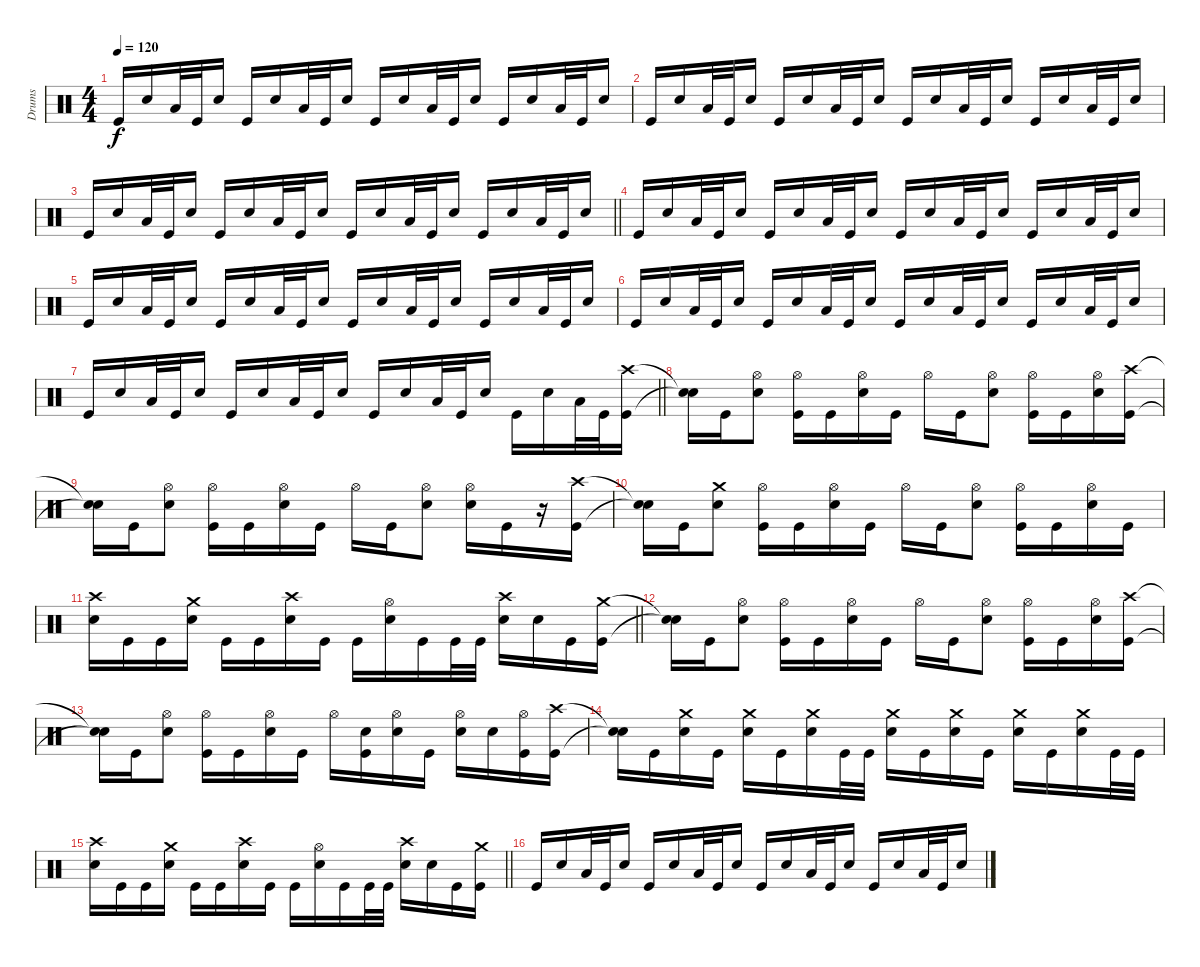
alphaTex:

\track ("Drums" "Drums") {instrument percussion}
\staff
\articulation defaults
\ts (4 4)
\tempo 120
\clef neutral
\ks c "Kick (hit)".16{dy f} "Electric Snare (hit)".16 "Low Floor Tom (hit)".32 "Kick (hit)".32 "Electric Snare (hit)".16 "Kick (hit)".16 "Electric Snare (hit)".16 "Low Floor Tom (hit)".32 "Kick (hit)".32 "Electric Snare (hit)".16 "Kick (hit)".16 "Electric Snare (hit)".16 "Low Floor Tom (hit)".32 "Kick (hit)".32 "Electric Snare (hit)".16 "Kick (hit)".16 "Electric Snare (hit)".16 "Low Floor Tom (hit)".32 "Kick (hit)".32 "Electric Snare (hit)".16
|
"Kick (hit)".16 "Electric Snare (hit)".16 "Low Floor Tom (hit)".32 "Kick (hit)".32 "Electric Snare (hit)".16 "Kick (hit)".16 "Electric Snare (hit)".16 "Low Floor Tom (hit)".32 "Kick (hit)".32 "Electric Snare (hit)".16 "Kick (hit)".16 "Electric Snare (hit)".16 "Low Floor Tom (hit)".32 "Kick (hit)".32 "Electric Snare (hit)".16 "Kick (hit)".16 "Electric Snare (hit)".16 "Low Floor Tom (hit)".32 "Kick (hit)".32 "Electric Snare (hit)".16 |
\barLineRight lightlight "Kick (hit)".16 "Electric Snare (hit)".16 "Low Floor Tom (hit)".32 "Kick (hit)".32 "Electric Snare (hit)".16 "Kick (hit)".16 "Electric Snare (hit)".16 "Low Floor Tom (hit)".32 "Kick (hit)".32 "Electric Snare (hit)".16 "Kick (hit)".16 "Electric Snare (hit)".16 "Low Floor Tom (hit)".32 "Kick (hit)".32 "Electric Snare (hit)".16 "Kick (hit)".16 "Electric Snare (hit)".16 "Low Floor Tom (hit)".32 "Kick (hit)".32 "Electric Snare (hit)".16
|
"Kick (hit)".16 "Electric Snare (hit)".16 "Low Floor Tom (hit)".32 "Kick (hit)".32 "Electric Snare (hit)".16 "Kick (hit)".16 "Electric Snare (hit)".16 "Low Floor Tom (hit)".32 "Kick (hit)".32 "Electric Snare (hit)".16 "Kick (hit)".16 "Electric Snare (hit)".16 "Low Floor Tom (hit)".32 "Kick (hit)".32 "Electric Snare (hit)".16 "Kick (hit)".16 "Electric Snare (hit)".16 "Low Floor Tom (hit)".32 "Kick (hit)".32 "Electric Snare (hit)".16 |
"Kick (hit)".16 "Electric Snare (hit)".16 "Low Floor Tom (hit)".32 "Kick (hit)".32 "Electric Snare (hit)".16 "Kick (hit)".16 "Electric Snare (hit)".16 "Low Floor Tom (hit)".32 "Kick (hit)".32 "Electric Snare (hit)".16 "Kick (hit)".16 "Electric Snare (hit)".16 "Low Floor Tom (hit)".32 "Kick (hit)".32 "Electric Snare (hit)".16 "Kick (hit)".16 "Electric Snare (hit)".16 "Low Floor Tom (hit)".32 "Kick (hit)".32 "Electric Snare (hit)".16 |
"Kick (hit)".16 "Electric Snare (hit)".16 "Low Floor Tom (hit)".32 "Kick (hit)".32 "Electric Snare (hit)".16 "Kick (hit)".16 "Electric Snare (hit)".16 "Low Floor Tom (hit)".32 "Kick (hit)".32 "Electric Snare (hit)".16 "Kick (hit)".16 "Electric Snare (hit)".16 "Low Floor Tom (hit)".32 "Kick (hit)".32 "Electric Snare (hit)".16 "Kick (hit)".16 "Electric Snare (hit)".16 "Low Floor Tom (hit)".32 "Kick (hit)".32 "Electric Snare (hit)".16 |
\barLineRight lightlight "Kick (hit)".16 "Electric Snare (hit)".16 "Low Floor Tom (hit)".32 "Kick (hit)".32 "Electric Snare (hit)".16 "Kick (hit)".16 "Electric Snare (hit)".16 "Low Floor Tom (hit)".32 "Kick (hit)".32 "Electric Snare (hit)".16 "Kick (hit)".16 "Electric Snare (hit)".16 "Low Floor Tom (hit)".32 "Kick (hit)".32 "Electric Snare (hit)".16 "Kick (hit)".16 "Electric Snare (hit)".16 "Low Floor Tom (hit)".32 "Kick (hit)".32
("Crash high (hit)" "Kick (hit)").16 |
\section ("" "")
("Snare (hit)"{t} "Snare (hit)"{t}).16 "Kick (hit)".16 ("Hi-Hat (open)" "Electric Snare (hit)").8 ("Hi-Hat (open)" "Kick (hit)").16 "Kick (hit)".16 ("Hi-Hat (open)" "Electric Snare (hit)").16 "Kick (hit)".16 "Hi-Hat (open)".16 "Kick (hit)".16 ("Hi-Hat (open)" "Electric Snare (hit)").8 ("Hi-Hat (open)" "Kick (hit)").16 "Kick (hit)".16 ("Hi-Hat (open)" "Electric Snare (hit)").16 ("Crash high (hit)" "Kick (hit)").16 |
("Snare (hit)"{t} "Snare (hit)"{t}).16 "Kick (hit)".16 ("Hi-Hat (open)" "Electric Snare (hit)").8 ("Hi-Hat (open)" "Kick (hit)").16 "Kick (hit)".16 ("Hi-Hat (open)" "Electric Snare (hit)").16 "Kick (hit)".16 "Hi-Hat (open)".16 "Kick (hit)".16 ("Hi-Hat (open)" "Electric Snare (hit)").8 ("Hi-Hat (open)" "Electric Snare (hit)").16 "Kick (hit)".16 r.16 ("Crash high (hit)" "Kick (hit)").16 |
("Snare (hit)"{t} "Snare (hit)"{t}).16 "Kick (hit)".16 ("Crash medium (hit)" "Electric Snare (hit)").8 ("Hi-Hat (open)" "Kick (hit)").16 "Kick (hit)".16 ("Hi-Hat (open)" "Electric Snare (hit)").16 "Kick (hit)".16 "Hi-Hat (open)".16 "Kick (hit)".16 ("Hi-Hat (open)" "Electric Snare (hit)").8 ("Hi-Hat (open)" "Kick (hit)").16 "Kick (hit)".16 ("Hi-Hat (open)" "Electric Snare (hit)").16 "Kick (hit)".16 |
\barLineRight lightlight
("Crash high (hit)" "Electric Snare (hit)").16 "Kick (hit)".16 "Kick (hit)".16 ("Crash medium (hit)" "Electric Snare (hit)").16 "Kick (hit)".16 "Kick (hit)".16 ("Crash high (hit)" "Electric Snare (hit)").16 "Kick (hit)".16 "Kick (hit)".16 ("Hi-Hat (open)" "Electric Snare (hit)").16 "Kick (hit)".16 "Kick (hit)".32 "Kick (hit)".32 ("Crash high (hit)" "Electric Snare (hit)").16 "Electric Snare (hit)".16 "Kick (hit)".16 ("Crash medium (hit)" "Kick (hit)").16 |
("Snare (hit)"{t} "Snare (hit)"{t}).16 "Kick (hit)".16 ("Hi-Hat (open)" "Electric Snare (hit)").8 ("Hi-Hat (open)" "Kick (hit)").16 "Kick (hit)".16 ("Hi-Hat (open)" "Electric Snare (hit)").16 "Kick (hit)".16 "Hi-Hat (open)".16 "Kick (hit)".16 ("Hi-Hat (open)" "Electric Snare (hit)").8 ("Hi-Hat (open)" "Kick (hit)").16 "Kick (hit)".16 ("Hi-Hat (open)" "Electric Snare (hit)").16 ("Crash high (hit)" "Kick (hit)").16 |
("Snare (hit)"{t} "Snare (hit)"{t}).16 "Kick (hit)".16 ("Hi-Hat (open)" "Electric Snare (hit)").8 ("Hi-Hat (open)" "Kick (hit)").16 "Kick (hit)".16 ("Hi-Hat (open)" "Electric Snare (hit)").16 "Kick (hit)".16 "Hi-Hat (open)".16 ("Electric Snare (hit)" "Kick (hit)").16 ("Hi-Hat (open)" "Electric Snare (hit)").16 "Kick (hit)".16 ("Hi-Hat (open)" "Electric Snare (hit)").16 "Electric Snare (hit)".16 ("Hi-Hat (open)" "Kick (hit)").16 ("Crash high (hit)" "Kick (hit)").16 |
("Snare (hit)"{t} "Snare (hit)"{t}).16 "Kick (hit)".16 ("Crash medium (hit)" "Electric Snare (hit)").16 "Kick (hit)".16 ("Crash medium (hit)" "Electric Snare (hit)").16 "Kick (hit)".16 ("Crash medium (hit)" "Electric Snare (hit)").16 "Kick (hit)".32 "Kick (hit)".32 ("Crash medium (hit)" "Electric Snare (hit)").16 "Kick (hit)".16 ("Crash medium (hit)" "Electric Snare (hit)").16 "Kick (hit)".16 ("Crash medium (hit)" "Electric Snare (hit)").16 "Kick (hit)".16 ("Crash medium (hit)" "Electric Snare (hit)").16 "Kick (hit)".32 "Kick (hit)".32 |
\barLineRight lightlight
("Crash high (hit)" "Electric Snare (hit)").16 "Kick (hit)".16 "Kick (hit)".16 ("Crash medium (hit)" "Electric Snare (hit)").16 "Kick (hit)".16 "Kick (hit)".16 ("Crash high (hit)" "Electric Snare (hit)").16 "Kick (hit)".16 "Kick (hit)".16 ("Hi-Hat (open)" "Electric Snare (hit)").16 "Kick (hit)".16 "Kick (hit)".32 "Kick (hit)".32 ("Crash high (hit)" "Electric Snare (hit)").16 "Electric Snare (hit)".16 "Kick (hit)".16 ("Crash medium (hit)" "Kick (hit)").16 |
\section ("" "")
"Kick (hit)".16 "Electric Snare (hit)".16 "Low Floor Tom (hit)".32 "Kick (hit)".32 "Electric Snare (hit)".16 "Kick (hit)".16 "Electric Snare (hit)".16 "Low Floor Tom (hit)".32 "Kick (hit)".32 "Electric Snare (hit)".16 "Kick (hit)".16 "Electric Snare (hit)".16 "Low Floor Tom (hit)".32 "Kick (hit)".32 "Electric Snare (hit)".16 "Kick (hit)".16 "Electric Snare (hit)".16 "Low Floor Tom (hit)".32 "Kick (hit)".32 "Electric Snare (hit)".16
